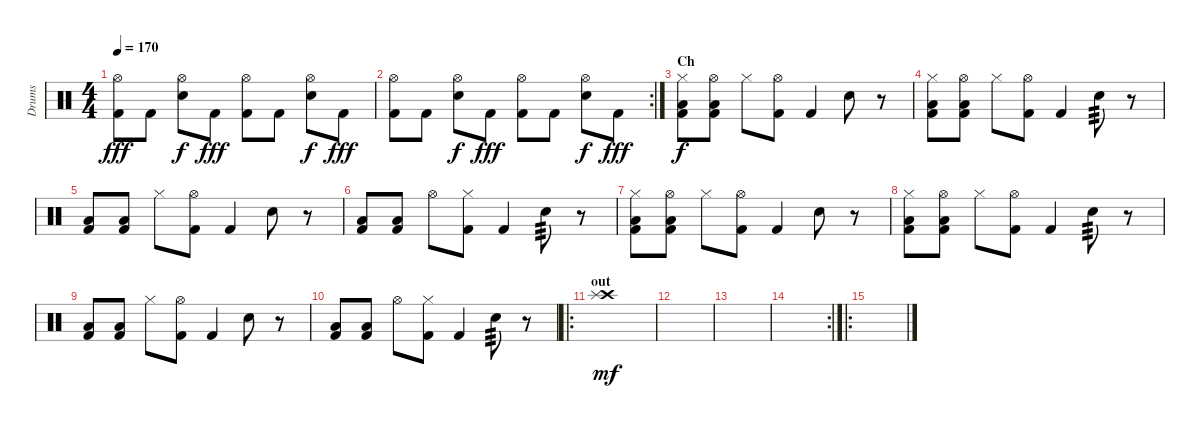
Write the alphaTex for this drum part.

\track ("Drums" "Drums") {instrument percussion}
\staff {score}
\articulation defaults
\ts (4 4)
\tempo 170
\clef neutral
\ks c
("Hi-Hat (open)" "Kick (hit) 2").8{dy fff} "Kick (hit) 2".8 ("Hi-Hat (open)" "Snare (hit) 2").8{dy f} "Kick (hit) 2".8{dy fff} ("Hi-Hat (open)" "Kick (hit) 2").8 "Kick (hit) 2".8 ("Hi-Hat (open)" "Snare (hit) 2").8{dy f} "Kick (hit) 2".8{dy fff} |
\rc 2
("Hi-Hat (open)" "Kick (hit) 2").8 "Kick (hit) 2".8 ("Hi-Hat (open)" "Snare (hit) 2").8{dy f} "Kick (hit) 2".8{dy fff} ("Hi-Hat (open)" "Kick (hit) 2").8 "Kick (hit) 2".8 ("Hi-Hat (open)" "Snare (hit) 2").8{dy f} "Kick (hit) 2".8{dy fff} |
\section ("" "Ch")
("Hi-Hat (closed)" "Low Tom (hit)" "Kick (hit) 2").8{dy f} ("Hi-Hat (open)" "Low Tom (hit)" "Kick (hit) 2").8 "Hi-Hat (closed)".8 ("Hi-Hat (open)" "Kick (hit) 2").8 "Kick (hit) 2".4 "Electric Snare (hit)".8 r.8 |
("Hi-Hat (closed)" "Low Tom (hit)" "Kick (hit) 2").8 ("Hi-Hat (open)" "Low Tom (hit)" "Kick (hit) 2").8 "Hi-Hat (closed)".8 ("Hi-Hat (open)" "Kick (hit) 2").8 "Kick (hit) 2".4 "Electric Snare (hit)".8{tp 3} r.8 |
("Low Tom (hit)" "Kick (hit) 2").8 ("Low Tom (hit)" "Kick (hit) 2").8 "Hi-Hat (closed)".8 ("Hi-Hat (open)" "Kick (hit) 2").8 "Kick (hit) 2".4 "Electric Snare (hit)".8 r.8 |
("Low Tom (hit)" "Kick (hit) 2").8 ("Low Tom (hit)" "Kick (hit) 2").8 "Hi-Hat (open)".8 ("Hi-Hat (closed)" "Kick (hit) 2").8 "Kick (hit) 2".4 "Electric Snare (hit)".8{tp 3} r.8 |
("Hi-Hat (closed)" "Low Tom (hit)" "Kick (hit) 2").8 ("Hi-Hat (open)" "Low Tom (hit)" "Kick (hit) 2").8 "Hi-Hat (closed)".8 ("Hi-Hat (open)" "Kick (hit) 2").8 "Kick (hit) 2".4 "Electric Snare (hit)".8 r.8 |
("Hi-Hat (closed)" "Low Tom (hit)" "Kick (hit) 2").8 ("Hi-Hat (open)" "Low Tom (hit)" "Kick (hit) 2").8 "Hi-Hat (closed)".8 ("Hi-Hat (open)" "Kick (hit) 2").8 "Kick (hit) 2".4 "Electric Snare (hit)".8{tp 3} r.8 |
("Low Tom (hit)" "Kick (hit) 2").8 ("Low Tom (hit)" "Kick (hit) 2").8 "Hi-Hat (closed)".8 ("Hi-Hat (open)" "Kick (hit) 2").8 "Kick (hit) 2".4 "Electric Snare (hit)".8 r.8 |
("Low Tom (hit)" "Kick (hit) 2").8 ("Low Tom (hit)" "Kick (hit) 2").8 "Hi-Hat (open)".8 ("Hi-Hat (closed)" "Kick (hit) 2").8 "Kick (hit) 2".4 "Electric Snare (hit)".8{tp 3} r.8 |
\ro
\section ("" "out")
("Crash high (hit)" "Splash (hit)").1{dy mf} |
|
|
\rc 2
|
\ro
